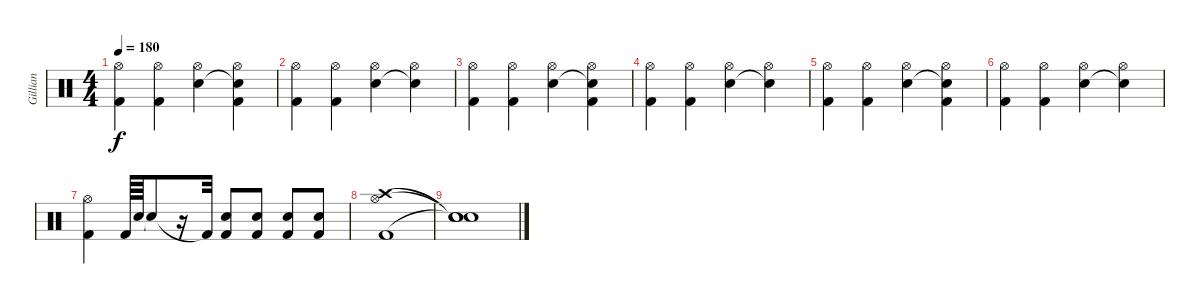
\track ("Gillian" "Gillian") {instrument percussion}
\staff {score}
\articulation defaults
\ts (4 4)
\tempo 180
\clef neutral
\ks c
("Hi-Hat (open)" "Kick (hit) 2").4{dy f} ("Hi-Hat (open)" "Kick (hit) 2").4 ("Hi-Hat (open)" "Electric Snare (hit)").4 ("Hi-Hat (open)" "Snare (hit)"{t} "Kick (hit) 2").4 |
("Hi-Hat (open)" "Kick (hit) 2").4 ("Hi-Hat (open)" "Kick (hit) 2").4 ("Hi-Hat (open)" "Electric Snare (hit)").4 ("Hi-Hat (open)" "Snare (hit)"{t}).4 |
("Hi-Hat (open)" "Kick (hit) 2").4 ("Hi-Hat (open)" "Kick (hit) 2").4 ("Hi-Hat (open)" "Electric Snare (hit)").4 ("Hi-Hat (open)" "Snare (hit)"{t} "Kick (hit) 2").4 |
("Hi-Hat (open)" "Kick (hit) 2").4 ("Hi-Hat (open)" "Kick (hit) 2").4 ("Hi-Hat (open)" "Electric Snare (hit)").4 ("Hi-Hat (open)" "Snare (hit)"{t}).4 |
("Hi-Hat (open)" "Kick (hit) 2").4 ("Hi-Hat (open)" "Kick (hit) 2").4 ("Hi-Hat (open)" "Electric Snare (hit)").4 ("Hi-Hat (open)" "Snare (hit)"{t} "Kick (hit) 2").4 |
("Hi-Hat (open)" "Kick (hit) 2").4 ("Hi-Hat (open)" "Kick (hit) 2").4 ("Hi-Hat (open)" "Electric Snare (hit)").4 ("Hi-Hat (open)" "Snare (hit)"{t}).4 |
("Hi-Hat (open)" "Kick (hit) 2").4 "Kick (hit) 2".64 "Electric Snare (hit)".64 "Snare (hit)"{t}.8 r.16 "Kick (hit) 2"{t}.32 ("Electric Snare (hit)" "Kick (hit) 2").8 ("Electric Snare (hit)" "Kick (hit) 2").8 ("Electric Snare (hit)" "Kick (hit) 2").8 ("Electric Snare (hit)" "Kick (hit) 2").8 |
("Crash high (hit)" "Hi-Hat (open)" "Kick (hit) 2").1 |
("Snare (hit)"{t} "Snare (hit)"{t} "Snare (hit)"{t}).1
